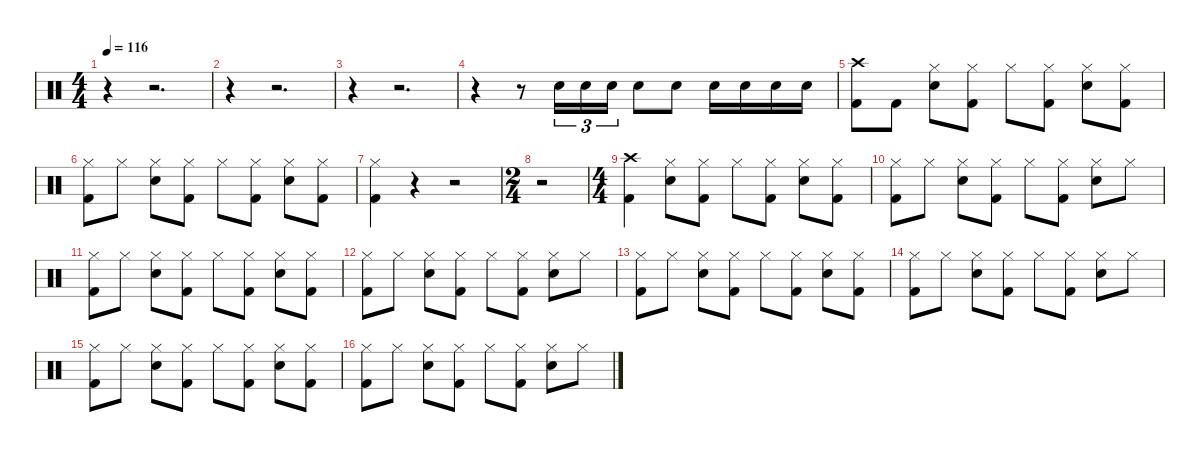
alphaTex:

\defaultSystemsLayout 4
\hideDynamics
\bracketExtendMode nobrackets
\singleTrackTrackNamePolicy hidden
\multiTrackTrackNamePolicy hidden
\firstSystemTrackNameMode fullname
\firstSystemTrackNameOrientation horizontal
\otherSystemsTrackNameOrientation horizontal
\track ("Drums" "drm.") {instrument percussion}
\staff {score}
\articulation defaults
\ts (4 4)
\tempo 116
\clef neutral
\ks c
r.4{dy mp beam Down} r.2{d beam Down} |
r.4{beam Down} r.2{d beam Down} |
r.4{beam Down} r.2{d beam Down} |
r.4{beam Down} r.8{beam Down} "Snare (hit) 2".16{tu (3 2) beam Down} "Snare (hit) 2".16{tu (3 2) beam Down} "Snare (hit) 2".16{tu (3 2) beam Down} "Snare (hit) 2".8{beam Down} "Snare (hit) 2".8{beam Down} "Snare (hit) 2".16{beam Down} "Snare (hit) 2".16{beam Down} "Snare (hit) 2".16{dy mf beam Down} "Snare (hit) 2".16{beam Down} |
("Crash high (hit)" "Kick (hit) 2").8{dy f beam Down} "Kick (hit) 2".8{beam Down} ("Hi-Hat (closed)" "Snare (hit) 2").8{beam Down} ("Hi-Hat (closed)" "Kick (hit) 2").8{beam Down} "Hi-Hat (closed)".8{beam Down} ("Hi-Hat (closed)" "Kick (hit) 2").8{beam Down} ("Hi-Hat (closed)" "Snare (hit) 2").8{beam Down} ("Hi-Hat (closed)" "Kick (hit) 2").8{beam Down} |
("Hi-Hat (closed)" "Kick (hit) 2").8{beam Down} "Hi-Hat (closed)".8{beam Down} ("Hi-Hat (closed)" "Snare (hit) 2").8{beam Down} ("Hi-Hat (closed)" "Kick (hit) 2").8{beam Down} "Hi-Hat (closed)".8{beam Down} ("Hi-Hat (closed)" "Kick (hit) 2").8{beam Down} ("Hi-Hat (closed)" "Snare (hit) 2").8{beam Down} ("Hi-Hat (closed)" "Kick (hit) 2").8{beam Down} |
("Hi-Hat (closed)" "Kick (hit) 2").4{beam Down} r.4{beam Down} r.2{beam Down} |
\ts (2 4)
r.2{beam Down} |
\ts (4 4)
("Crash high (hit)" "Kick (hit) 2").4{beam Down} ("Hi-Hat (closed)" "Snare (hit) 2").8{beam Down} ("Hi-Hat (closed)" "Kick (hit) 2").8{beam Down} "Hi-Hat (closed)".8{beam Down} ("Hi-Hat (closed)" "Kick (hit) 2").8{beam Down} ("Hi-Hat (closed)" "Snare (hit) 2").8{beam Down} ("Hi-Hat (closed)" "Kick (hit) 2").8{beam Down} |
("Hi-Hat (closed)" "Kick (hit) 2").8{beam Down} "Hi-Hat (closed)".8{beam Down} ("Hi-Hat (closed)" "Snare (hit) 2").8{beam Down} ("Hi-Hat (closed)" "Kick (hit) 2").8{beam Down} "Hi-Hat (closed)".8{beam Down} ("Hi-Hat (closed)" "Kick (hit) 2").8{beam Down} ("Hi-Hat (closed)" "Snare (hit) 2").8{beam Down} "Hi-Hat (closed)".8{beam Down} |
("Hi-Hat (closed)" "Kick (hit) 2").8{beam Down} "Hi-Hat (closed)".8{beam Down} ("Hi-Hat (closed)" "Snare (hit) 2").8{beam Down} ("Hi-Hat (closed)" "Kick (hit) 2").8{beam Down} "Hi-Hat (closed)".8{beam Down} ("Hi-Hat (closed)" "Kick (hit) 2").8{beam Down} ("Hi-Hat (closed)" "Snare (hit) 2").8{beam Down} ("Hi-Hat (closed)" "Kick (hit) 2").8{beam Down} |
("Hi-Hat (closed)" "Kick (hit) 2").8{beam Down} "Hi-Hat (closed)".8{beam Down} ("Hi-Hat (closed)" "Snare (hit) 2").8{beam Down} ("Hi-Hat (closed)" "Kick (hit) 2").8{beam Down} "Hi-Hat (closed)".8{beam Down} ("Hi-Hat (closed)" "Kick (hit) 2").8{beam Down} ("Hi-Hat (closed)" "Snare (hit) 2").8{beam Down} "Hi-Hat (closed)".8{beam Down} |
("Hi-Hat (closed)" "Kick (hit) 2").8{beam Down} "Hi-Hat (closed)".8{beam Down} ("Hi-Hat (closed)" "Snare (hit) 2").8{beam Down} ("Hi-Hat (closed)" "Kick (hit) 2").8{beam Down} "Hi-Hat (closed)".8{beam Down} ("Hi-Hat (closed)" "Kick (hit) 2").8{beam Down} ("Hi-Hat (closed)" "Snare (hit) 2").8{beam Down} ("Hi-Hat (closed)" "Kick (hit) 2").8{beam Down} |
("Hi-Hat (closed)" "Kick (hit) 2").8{beam Down} "Hi-Hat (closed)".8{beam Down} ("Hi-Hat (closed)" "Snare (hit) 2").8{beam Down} ("Hi-Hat (closed)" "Kick (hit) 2").8{beam Down} "Hi-Hat (closed)".8{beam Down} ("Hi-Hat (closed)" "Kick (hit) 2").8{beam Down} ("Hi-Hat (closed)" "Snare (hit) 2").8{beam Down} "Hi-Hat (closed)".8{beam Down} |
("Hi-Hat (closed)" "Kick (hit) 2").8{beam Down} "Hi-Hat (closed)".8{beam Down} ("Hi-Hat (closed)" "Snare (hit) 2").8{beam Down} ("Hi-Hat (closed)" "Kick (hit) 2").8{beam Down} "Hi-Hat (closed)".8{beam Down} ("Hi-Hat (closed)" "Kick (hit) 2").8{beam Down} ("Hi-Hat (closed)" "Snare (hit) 2").8{beam Down} ("Hi-Hat (closed)" "Kick (hit) 2").8{beam Down} |
("Hi-Hat (closed)" "Kick (hit) 2").8{beam Down} "Hi-Hat (closed)".8{beam Down} ("Hi-Hat (closed)" "Snare (hit) 2").8{beam Down} ("Hi-Hat (closed)" "Kick (hit) 2").8{beam Down} "Hi-Hat (closed)".8{beam Down} ("Hi-Hat (closed)" "Kick (hit) 2").8{beam Down} ("Hi-Hat (closed)" "Snare (hit) 2").8{beam Down} "Hi-Hat (closed)".8{beam Down}
